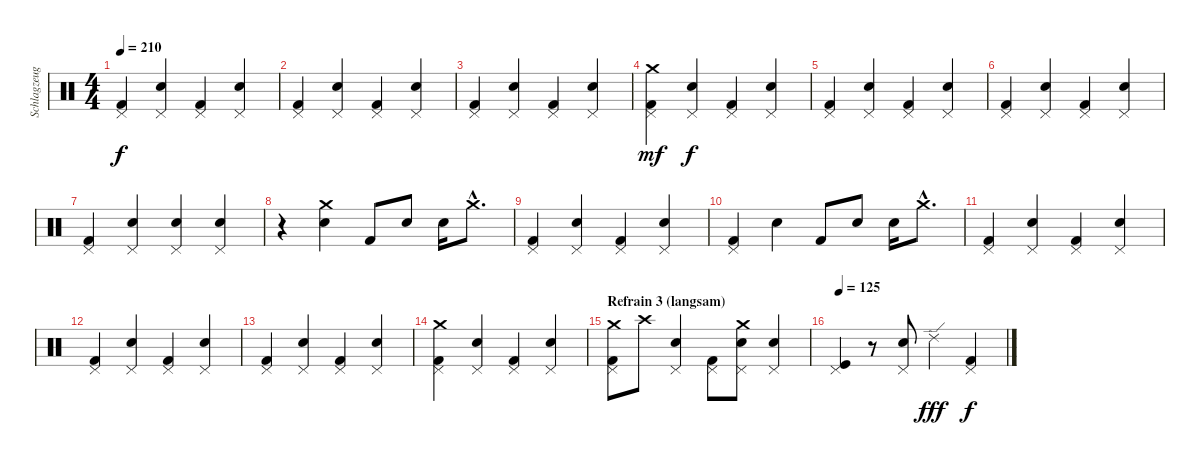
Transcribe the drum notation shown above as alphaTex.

\track ("Schlagzeug" "Schlagzeug") {instrument percussion}
\staff {score}
\articulation defaults
\ts (4 4)
\tempo 210
\clef neutral
\ks c
("Pedal Hi-Hat (hit)" "Kick (hit) 2").4{dy f} ("Pedal Hi-Hat (hit)" "Electric Snare (hit)").4 ("Pedal Hi-Hat (hit)" "Kick (hit) 2").4 ("Pedal Hi-Hat (hit)" "Electric Snare (hit)").4 |
("Pedal Hi-Hat (hit)" "Kick (hit) 2").4 ("Pedal Hi-Hat (hit)" "Electric Snare (hit)").4 ("Pedal Hi-Hat (hit)" "Kick (hit) 2").4 ("Pedal Hi-Hat (hit)" "Electric Snare (hit)").4 |
("Pedal Hi-Hat (hit)" "Kick (hit) 2").4 ("Pedal Hi-Hat (hit)" "Electric Snare (hit)").4 ("Pedal Hi-Hat (hit)" "Kick (hit) 2").4 ("Pedal Hi-Hat (hit)" "Electric Snare (hit)").4 |
("Pedal Hi-Hat (hit)" "Crash medium (hit)" "Kick (hit) 2").4{dy mf} ("Pedal Hi-Hat (hit)" "Electric Snare (hit)").4{dy f} ("Pedal Hi-Hat (hit)" "Kick (hit) 2").4 ("Pedal Hi-Hat (hit)" "Electric Snare (hit)").4 |
("Pedal Hi-Hat (hit)" "Kick (hit) 2").4 ("Pedal Hi-Hat (hit)" "Electric Snare (hit)").4 ("Pedal Hi-Hat (hit)" "Kick (hit) 2").4 ("Pedal Hi-Hat (hit)" "Electric Snare (hit)").4 |
("Pedal Hi-Hat (hit)" "Kick (hit) 2").4 ("Pedal Hi-Hat (hit)" "Electric Snare (hit)").4 ("Pedal Hi-Hat (hit)" "Kick (hit) 2").4 ("Pedal Hi-Hat (hit)" "Electric Snare (hit)").4 |
("Pedal Hi-Hat (hit)" "Kick (hit) 2").4 ("Pedal Hi-Hat (hit)" "Electric Snare (hit)").4 ("Pedal Hi-Hat (hit)" "Electric Snare (hit)").4 ("Pedal Hi-Hat (hit)" "Electric Snare (hit)").4 |
r.4 ("Crash medium (hit)" "Electric Snare (hit)").4 "Kick (hit) 2".8 "Electric Snare (hit)".8 "Electric Snare (hit)".16 "Crash medium (hit)"{hac}.8{d} |
("Pedal Hi-Hat (hit)" "Kick (hit) 2").4 ("Pedal Hi-Hat (hit)" "Electric Snare (hit)").4 ("Pedal Hi-Hat (hit)" "Kick (hit) 2").4 ("Pedal Hi-Hat (hit)" "Electric Snare (hit)").4 |
("Pedal Hi-Hat (hit)" "Kick (hit) 2").4 "Electric Snare (hit)".4 "Kick (hit) 2".8 "Electric Snare (hit)".8 "Electric Snare (hit)".16 "Crash medium (hit)"{hac}.8{d} |
("Pedal Hi-Hat (hit)" "Kick (hit) 2").4 ("Pedal Hi-Hat (hit)" "Electric Snare (hit)").4 ("Pedal Hi-Hat (hit)" "Kick (hit) 2").4 ("Pedal Hi-Hat (hit)" "Electric Snare (hit)").4 |
("Pedal Hi-Hat (hit)" "Kick (hit) 2").4 ("Pedal Hi-Hat (hit)" "Electric Snare (hit)").4 ("Pedal Hi-Hat (hit)" "Kick (hit) 2").4 ("Pedal Hi-Hat (hit)" "Electric Snare (hit)").4 |
("Pedal Hi-Hat (hit)" "Kick (hit) 2").4 ("Pedal Hi-Hat (hit)" "Electric Snare (hit)").4 ("Pedal Hi-Hat (hit)" "Kick (hit) 2").4 ("Pedal Hi-Hat (hit)" "Electric Snare (hit)").4 |
("Pedal Hi-Hat (hit)" "Kick (hit) 2" "Crash medium (hit)").4 ("Pedal Hi-Hat (hit)" "Electric Snare (hit)").4 ("Pedal Hi-Hat (hit)" "Kick (hit) 2").4 ("Pedal Hi-Hat (hit)" "Electric Snare (hit)").4 |
\section ("" "Refrain 3 (langsam)")
("Pedal Hi-Hat (hit)" "Kick (hit) 2" "Crash medium (hit)").8 "Crash high (hit)".8 ("Pedal Hi-Hat (hit)" "Electric Snare (hit)").4 ("Pedal Hi-Hat (hit)" "Kick (hit) 2").8 ("Pedal Hi-Hat (hit)" "Electric Snare (hit)" "Crash medium (hit)").8 ("Pedal Hi-Hat (hit)" "Electric Snare (hit)").4 |
\tempo 125
("Pedal Hi-Hat (hit)" "Kick (hit)").4 r.8 ("Pedal Hi-Hat (hit)" "Electric Snare (hit)").8 "Ride (edge) 2".4{dy fff} ("Pedal Hi-Hat (hit)" "Kick (hit) 2").4{dy f}
